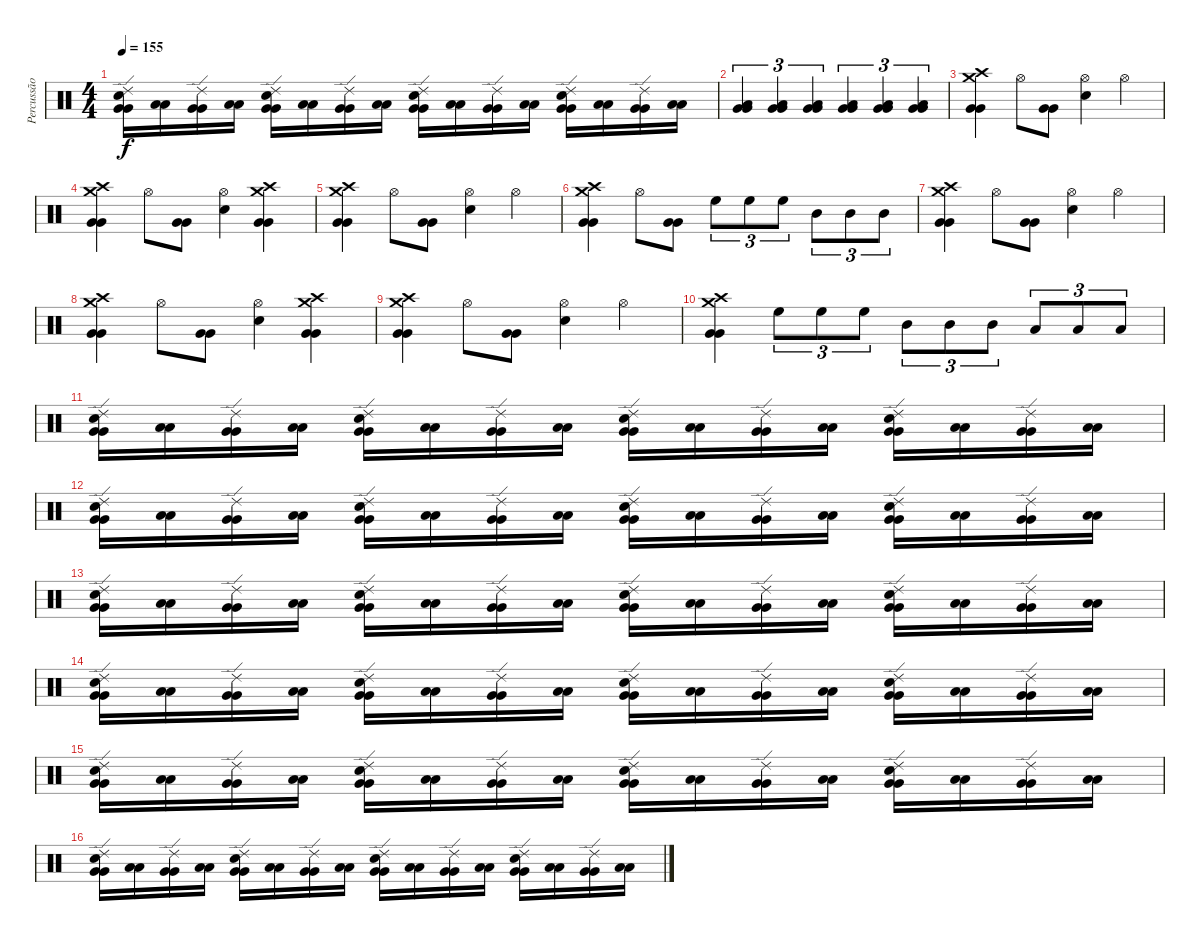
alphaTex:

\track ("Percussão" "Percussão") {instrument percussion}
\staff {score}
\articulation defaults
\ts (4 4)
\tempo 155
\clef neutral
\ks c
("Electric Snare (hit)" "Ride (edge) 2" "Very Low Tom (hit)" "Very Low Tom (hit)").16{dy f} ("Low Floor Tom (hit)" "Low Floor Tom (hit)").16 ("Ride (edge) 2" "Very Low Tom (hit)" "Very Low Tom (hit)").16 ("Low Floor Tom (hit)" "Low Floor Tom (hit)").16 ("Electric Snare (hit)" "Ride (edge) 2" "Very Low Tom (hit)" "Very Low Tom (hit)").16 ("Low Floor Tom (hit)" "Low Floor Tom (hit)").16 ("Ride (edge) 2" "Very Low Tom (hit)" "Very Low Tom (hit)").16 ("Low Floor Tom (hit)" "Low Floor Tom (hit)").16 ("Electric Snare (hit)" "Ride (edge) 2" "Very Low Tom (hit)" "Very Low Tom (hit)").16 ("Low Floor Tom (hit)" "Low Floor Tom (hit)").16 ("Ride (edge) 2" "Very Low Tom (hit)" "Very Low Tom (hit)").16 ("Low Floor Tom (hit)" "Low Floor Tom (hit)").16 ("Electric Snare (hit)" "Ride (edge) 2" "Very Low Tom (hit)" "Very Low Tom (hit)").16 ("Low Floor Tom (hit)" "Low Floor Tom (hit)").16 ("Ride (edge) 2" "Very Low Tom (hit)" "Very Low Tom (hit)").16 ("Low Floor Tom (hit)" "Low Floor Tom (hit)").16 |
("Low Tom (hit)" "Very Low Tom (hit)" "Very Low Tom (hit)").4{tu (3 2)} ("Low Tom (hit)" "Very Low Tom (hit)" "Very Low Tom (hit)").4{tu (3 2)} ("Low Tom (hit)" "Very Low Tom (hit)" "Very Low Tom (hit)").4{tu (3 2)} ("Low Tom (hit)" "Very Low Tom (hit)" "Very Low Tom (hit)").4{tu (3 2)} ("Low Tom (hit)" "Very Low Tom (hit)" "Very Low Tom (hit)").4{tu (3 2)} ("Low Tom (hit)" "Very Low Tom (hit)" "Very Low Tom (hit)").4{tu (3 2)} |
("Crash high (hit)" "Crash medium (hit)" "Very Low Tom (hit)" "Very Low Tom (hit)").4 "Hi-Hat (open)".8 ("Very Low Tom (hit)" "Very Low Tom (hit)").8 ("Hi-Hat (open)" "Electric Snare (hit)").4 "Hi-Hat (open)".4 |
("Crash high (hit)" "Crash medium (hit)" "Very Low Tom (hit)" "Very Low Tom (hit)").4 "Hi-Hat (open)".8 ("Very Low Tom (hit)" "Very Low Tom (hit)").8 ("Hi-Hat (open)" "Electric Snare (hit)").4 ("Crash high (hit)" "Crash medium (hit)" "Very Low Tom (hit)" "Very Low Tom (hit)").4 |
("Crash high (hit)" "Crash medium (hit)" "Very Low Tom (hit)" "Very Low Tom (hit)").4 "Hi-Hat (open)".8 ("Very Low Tom (hit)" "Very Low Tom (hit)").8 ("Hi-Hat (open)" "Electric Snare (hit)").4 "Hi-Hat (open)".4 |
("Crash high (hit)" "Crash medium (hit)" "Very Low Tom (hit)" "Very Low Tom (hit)").4 "Hi-Hat (open)".8 ("Very Low Tom (hit)" "Very Low Tom (hit)").8 "High Floor Tom (hit)".8{tu (3 2)} "High Floor Tom (hit)".8{tu (3 2)} "High Floor Tom (hit)".8{tu (3 2)} "Mid Tom (hit)".8{tu (3 2)} "Mid Tom (hit)".8{tu (3 2)} "Mid Tom (hit)".8{tu (3 2)} |
("Crash high (hit)" "Crash medium (hit)" "Very Low Tom (hit)" "Very Low Tom (hit)").4 "Hi-Hat (open)".8 ("Very Low Tom (hit)" "Very Low Tom (hit)").8 ("Hi-Hat (open)" "Electric Snare (hit)").4 "Hi-Hat (open)".4 |
("Crash high (hit)" "Crash medium (hit)" "Very Low Tom (hit)" "Very Low Tom (hit)").4 "Hi-Hat (open)".8 ("Very Low Tom (hit)" "Very Low Tom (hit)").8 ("Hi-Hat (open)" "Electric Snare (hit)").4 ("Crash high (hit)" "Crash medium (hit)" "Very Low Tom (hit)" "Very Low Tom (hit)").4 |
("Crash high (hit)" "Crash medium (hit)" "Very Low Tom (hit)" "Very Low Tom (hit)").4 "Hi-Hat (open)".8 ("Very Low Tom (hit)" "Very Low Tom (hit)").8 ("Hi-Hat (open)" "Electric Snare (hit)").4 "Hi-Hat (open)".4 |
("Crash high (hit)" "Crash medium (hit)" "Very Low Tom (hit)" "Very Low Tom (hit)").4 "High Floor Tom (hit)".8{tu (3 2)} "High Floor Tom (hit)".8{tu (3 2)} "High Floor Tom (hit)".8{tu (3 2)} "Mid Tom (hit)".8{tu (3 2)} "Mid Tom (hit)".8{tu (3 2)} "Mid Tom (hit)".8{tu (3 2)} "Low Tom (hit)".8{tu (3 2)} "Low Tom (hit)".8{tu (3 2)} "Low Tom (hit)".8{tu (3 2)} |
("Electric Snare (hit)" "Ride (edge) 2" "Very Low Tom (hit)" "Very Low Tom (hit)").16 ("Low Floor Tom (hit)" "Low Floor Tom (hit)").16 ("Ride (edge) 2" "Very Low Tom (hit)" "Very Low Tom (hit)").16 ("Low Floor Tom (hit)" "Low Floor Tom (hit)").16 ("Electric Snare (hit)" "Ride (edge) 2" "Very Low Tom (hit)" "Very Low Tom (hit)").16 ("Low Floor Tom (hit)" "Low Floor Tom (hit)").16 ("Ride (edge) 2" "Very Low Tom (hit)" "Very Low Tom (hit)").16 ("Low Floor Tom (hit)" "Low Floor Tom (hit)").16 ("Electric Snare (hit)" "Ride (edge) 2" "Very Low Tom (hit)" "Very Low Tom (hit)").16 ("Low Floor Tom (hit)" "Low Floor Tom (hit)").16 ("Ride (edge) 2" "Very Low Tom (hit)" "Very Low Tom (hit)").16 ("Low Floor Tom (hit)" "Low Floor Tom (hit)").16 ("Electric Snare (hit)" "Ride (edge) 2" "Very Low Tom (hit)" "Very Low Tom (hit)").16 ("Low Floor Tom (hit)" "Low Floor Tom (hit)").16 ("Ride (edge) 2" "Very Low Tom (hit)" "Very Low Tom (hit)").16 ("Low Floor Tom (hit)" "Low Floor Tom (hit)").16 |
("Electric Snare (hit)" "Ride (edge) 2" "Very Low Tom (hit)" "Very Low Tom (hit)").16 ("Low Floor Tom (hit)" "Low Floor Tom (hit)").16 ("Ride (edge) 2" "Very Low Tom (hit)" "Very Low Tom (hit)").16 ("Low Floor Tom (hit)" "Low Floor Tom (hit)").16 ("Electric Snare (hit)" "Ride (edge) 2" "Very Low Tom (hit)" "Very Low Tom (hit)").16 ("Low Floor Tom (hit)" "Low Floor Tom (hit)").16 ("Ride (edge) 2" "Very Low Tom (hit)" "Very Low Tom (hit)").16 ("Low Floor Tom (hit)" "Low Floor Tom (hit)").16 ("Electric Snare (hit)" "Ride (edge) 2" "Very Low Tom (hit)" "Very Low Tom (hit)").16 ("Low Floor Tom (hit)" "Low Floor Tom (hit)").16 ("Ride (edge) 2" "Very Low Tom (hit)" "Very Low Tom (hit)").16 ("Low Floor Tom (hit)" "Low Floor Tom (hit)").16 ("Electric Snare (hit)" "Ride (edge) 2" "Very Low Tom (hit)" "Very Low Tom (hit)").16 ("Low Floor Tom (hit)" "Low Floor Tom (hit)").16 ("Ride (edge) 2" "Very Low Tom (hit)" "Very Low Tom (hit)").16 ("Low Floor Tom (hit)" "Low Floor Tom (hit)").16 |
("Electric Snare (hit)" "Ride (edge) 2" "Very Low Tom (hit)" "Very Low Tom (hit)").16 ("Low Floor Tom (hit)" "Low Floor Tom (hit)").16 ("Ride (edge) 2" "Very Low Tom (hit)" "Very Low Tom (hit)").16 ("Low Floor Tom (hit)" "Low Floor Tom (hit)").16 ("Electric Snare (hit)" "Ride (edge) 2" "Very Low Tom (hit)" "Very Low Tom (hit)").16 ("Low Floor Tom (hit)" "Low Floor Tom (hit)").16 ("Ride (edge) 2" "Very Low Tom (hit)" "Very Low Tom (hit)").16 ("Low Floor Tom (hit)" "Low Floor Tom (hit)").16 ("Electric Snare (hit)" "Ride (edge) 2" "Very Low Tom (hit)" "Very Low Tom (hit)").16 ("Low Floor Tom (hit)" "Low Floor Tom (hit)").16 ("Ride (edge) 2" "Very Low Tom (hit)" "Very Low Tom (hit)").16 ("Low Floor Tom (hit)" "Low Floor Tom (hit)").16 ("Electric Snare (hit)" "Ride (edge) 2" "Very Low Tom (hit)" "Very Low Tom (hit)").16 ("Low Floor Tom (hit)" "Low Floor Tom (hit)").16 ("Ride (edge) 2" "Very Low Tom (hit)" "Very Low Tom (hit)").16 ("Low Floor Tom (hit)" "Low Floor Tom (hit)").16 |
("Electric Snare (hit)" "Ride (edge) 2" "Very Low Tom (hit)" "Very Low Tom (hit)").16 ("Low Floor Tom (hit)" "Low Floor Tom (hit)").16 ("Ride (edge) 2" "Very Low Tom (hit)" "Very Low Tom (hit)").16 ("Low Floor Tom (hit)" "Low Floor Tom (hit)").16 ("Electric Snare (hit)" "Ride (edge) 2" "Very Low Tom (hit)" "Very Low Tom (hit)").16 ("Low Floor Tom (hit)" "Low Floor Tom (hit)").16 ("Ride (edge) 2" "Very Low Tom (hit)" "Very Low Tom (hit)").16 ("Low Floor Tom (hit)" "Low Floor Tom (hit)").16 ("Electric Snare (hit)" "Ride (edge) 2" "Very Low Tom (hit)" "Very Low Tom (hit)").16 ("Low Floor Tom (hit)" "Low Floor Tom (hit)").16 ("Ride (edge) 2" "Very Low Tom (hit)" "Very Low Tom (hit)").16 ("Low Floor Tom (hit)" "Low Floor Tom (hit)").16 ("Electric Snare (hit)" "Ride (edge) 2" "Very Low Tom (hit)" "Very Low Tom (hit)").16 ("Low Floor Tom (hit)" "Low Floor Tom (hit)").16 ("Ride (edge) 2" "Very Low Tom (hit)" "Very Low Tom (hit)").16 ("Low Floor Tom (hit)" "Low Floor Tom (hit)").16 |
("Electric Snare (hit)" "Ride (edge) 2" "Very Low Tom (hit)" "Very Low Tom (hit)").16 ("Low Floor Tom (hit)" "Low Floor Tom (hit)").16 ("Ride (edge) 2" "Very Low Tom (hit)" "Very Low Tom (hit)").16 ("Low Floor Tom (hit)" "Low Floor Tom (hit)").16 ("Electric Snare (hit)" "Ride (edge) 2" "Very Low Tom (hit)" "Very Low Tom (hit)").16 ("Low Floor Tom (hit)" "Low Floor Tom (hit)").16 ("Ride (edge) 2" "Very Low Tom (hit)" "Very Low Tom (hit)").16 ("Low Floor Tom (hit)" "Low Floor Tom (hit)").16 ("Electric Snare (hit)" "Ride (edge) 2" "Very Low Tom (hit)" "Very Low Tom (hit)").16 ("Low Floor Tom (hit)" "Low Floor Tom (hit)").16 ("Ride (edge) 2" "Very Low Tom (hit)" "Very Low Tom (hit)").16 ("Low Floor Tom (hit)" "Low Floor Tom (hit)").16 ("Electric Snare (hit)" "Ride (edge) 2" "Very Low Tom (hit)" "Very Low Tom (hit)").16 ("Low Floor Tom (hit)" "Low Floor Tom (hit)").16 ("Ride (edge) 2" "Very Low Tom (hit)" "Very Low Tom (hit)").16 ("Low Floor Tom (hit)" "Low Floor Tom (hit)").16 |
("Electric Snare (hit)" "Ride (edge) 2" "Very Low Tom (hit)" "Very Low Tom (hit)").16 ("Low Floor Tom (hit)" "Low Floor Tom (hit)").16 ("Ride (edge) 2" "Very Low Tom (hit)" "Very Low Tom (hit)").16 ("Low Floor Tom (hit)" "Low Floor Tom (hit)").16 ("Electric Snare (hit)" "Ride (edge) 2" "Very Low Tom (hit)" "Very Low Tom (hit)").16 ("Low Floor Tom (hit)" "Low Floor Tom (hit)").16 ("Ride (edge) 2" "Very Low Tom (hit)" "Very Low Tom (hit)").16 ("Low Floor Tom (hit)" "Low Floor Tom (hit)").16 ("Electric Snare (hit)" "Ride (edge) 2" "Very Low Tom (hit)" "Very Low Tom (hit)").16 ("Low Floor Tom (hit)" "Low Floor Tom (hit)").16 ("Ride (edge) 2" "Very Low Tom (hit)" "Very Low Tom (hit)").16 ("Low Floor Tom (hit)" "Low Floor Tom (hit)").16 ("Electric Snare (hit)" "Ride (edge) 2" "Very Low Tom (hit)" "Very Low Tom (hit)").16 ("Low Floor Tom (hit)" "Low Floor Tom (hit)").16 ("Ride (edge) 2" "Very Low Tom (hit)" "Very Low Tom (hit)").16 ("Low Floor Tom (hit)" "Low Floor Tom (hit)").16
